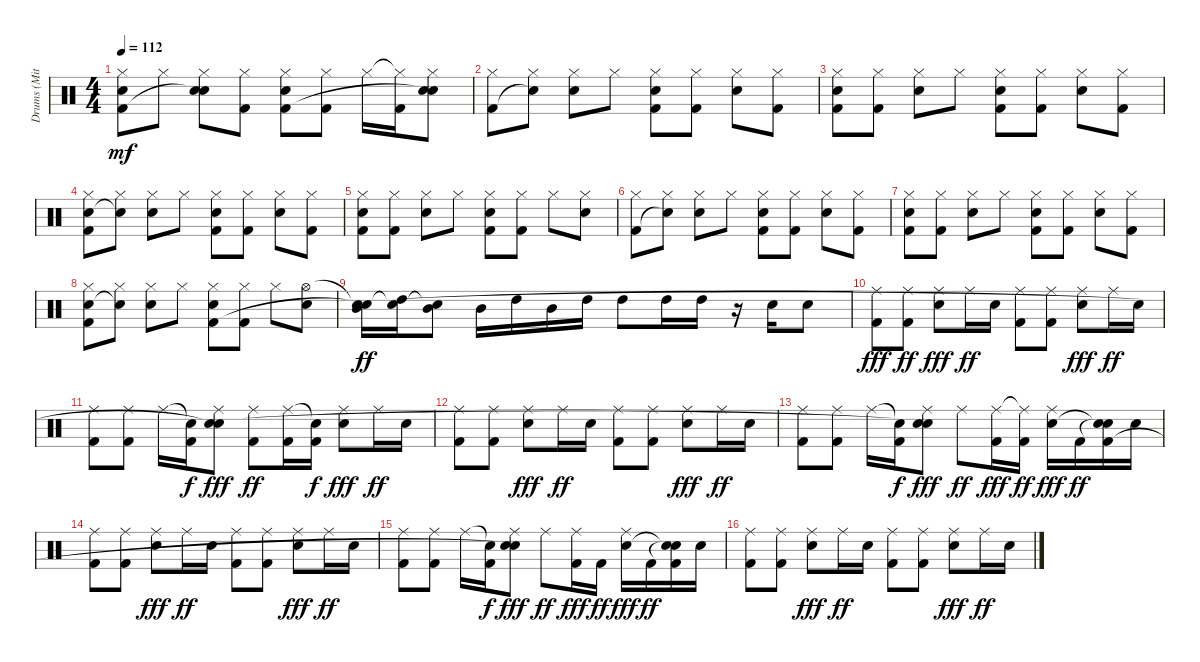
\track ("Drums (Mitch Mitchell)" "Drums (Mit") {instrument percussion}
\staff {score}
\articulation defaults
\ts (4 4)
\tempo 112
\clef neutral
\ks c
("Hi-Hat (closed)" "Electric Snare (hit)" "Kick (hit) 2").8{dy mf} "Hi-Hat (closed)".8 ("Hi-Hat (closed)" "Electric Snare (hit)" "Snare (hit)"{t}).8 ("Hi-Hat (closed)" "Kick (hit) 2").8 ("Hi-Hat (closed)" "Electric Snare (hit)" "Kick (hit) 2").8 ("Hi-Hat (closed)" "Kick (hit) 2").8 "Hi-Hat (closed)".16 ("Hi-Hat (closed)"{t} "Kick (hit) 2").16 ("Hi-Hat (closed)" "Electric Snare (hit)" "Snare (hit)"{t}).8 |
("Hi-Hat (closed)" "Kick (hit) 2").8 ("Hi-Hat (closed)" "Snare (hit)"{t}).8 ("Hi-Hat (closed)" "Electric Snare (hit)").8 "Hi-Hat (closed)".8 ("Hi-Hat (closed)" "Electric Snare (hit)" "Kick (hit) 2").8 ("Hi-Hat (closed)" "Kick (hit) 2").8 ("Hi-Hat (closed)" "Electric Snare (hit)").8 ("Hi-Hat (closed)" "Kick (hit) 2").8 |
("Hi-Hat (closed)" "Electric Snare (hit)" "Kick (hit) 2").8 ("Hi-Hat (closed)" "Kick (hit) 2").8 ("Hi-Hat (closed)" "Electric Snare (hit)").8 "Hi-Hat (closed)".8 ("Hi-Hat (closed)" "Electric Snare (hit)" "Kick (hit) 2").8 ("Hi-Hat (closed)" "Kick (hit) 2").8 ("Hi-Hat (closed)" "Electric Snare (hit)").8 ("Hi-Hat (closed)" "Kick (hit) 2").8 |
("Hi-Hat (closed)" "Electric Snare (hit)" "Kick (hit) 2").8 ("Hi-Hat (closed)" "Snare (hit)"{t}).8 ("Hi-Hat (closed)" "Electric Snare (hit)").8 "Hi-Hat (closed)".8 ("Hi-Hat (closed)" "Electric Snare (hit)" "Kick (hit) 2").8 ("Hi-Hat (closed)" "Kick (hit) 2").8 ("Hi-Hat (closed)" "Electric Snare (hit)").8 ("Hi-Hat (closed)" "Kick (hit) 2").8 |
("Hi-Hat (closed)" "Electric Snare (hit)" "Kick (hit) 2").8 ("Hi-Hat (closed)" "Kick (hit) 2").8 ("Hi-Hat (closed)" "Electric Snare (hit)").8 "Hi-Hat (closed)".8 ("Hi-Hat (closed)" "Electric Snare (hit)" "Kick (hit) 2").8 ("Hi-Hat (closed)" "Kick (hit) 2").8 "Hi-Hat (closed)".8 ("Hi-Hat (closed)" "Electric Snare (hit)").8 |
("Hi-Hat (closed)" "Kick (hit) 2").8 ("Hi-Hat (closed)" "Snare (hit)"{t}).8 ("Hi-Hat (closed)" "Electric Snare (hit)").8 "Hi-Hat (closed)".8 ("Hi-Hat (closed)" "Electric Snare (hit)" "Kick (hit) 2").8 ("Hi-Hat (closed)" "Kick (hit) 2").8 ("Hi-Hat (closed)" "Electric Snare (hit)").8 ("Hi-Hat (closed)" "Kick (hit) 2").8 |
("Hi-Hat (closed)" "Electric Snare (hit)" "Kick (hit) 2").8 ("Hi-Hat (closed)" "Kick (hit) 2").8 ("Hi-Hat (closed)" "Electric Snare (hit)").8 "Hi-Hat (closed)".8 ("Hi-Hat (closed)" "Electric Snare (hit)" "Kick (hit) 2").8 ("Hi-Hat (closed)" "Kick (hit) 2").8 ("Hi-Hat (closed)" "Electric Snare (hit)").8 ("Hi-Hat (closed)" "Kick (hit) 2").8 |
("Hi-Hat (closed)" "Electric Snare (hit)" "Kick (hit) 2").8 ("Hi-Hat (closed)" "Snare (hit)"{t}).8 ("Hi-Hat (closed)" "Electric Snare (hit)").8 "Hi-Hat (closed)".8 ("Hi-Hat (closed)" "Electric Snare (hit)" "Kick (hit) 2").8 ("Hi-Hat (closed)" "Kick (hit) 2").8 "Hi-Hat (closed)".8 ("Hi-Hat (open)" "Electric Snare (hit)").8 |
("Snare (hit)"{t} "Mid Tom (hit)" "Snare (hit)"{t}).16{dy ff} ("Snare (hit)"{t} "High Tom (hit)").16 ("Snare (hit)"{t} "Mid Tom (hit)").8 "Mid Tom (hit)".16 "High Tom (hit)".16 "Mid Tom (hit)".16 "High Tom (hit)".16 "High Tom (hit)".8 "High Tom (hit)".16 "High Tom (hit)".16 r.16 "Electric Snare (hit)".16 "Electric Snare (hit)".8 |
("Ride (middle)" "Kick (hit) 2").8{dy fff} ("Ride (middle)" "Kick (hit) 2").8{dy ff} ("Ride (middle)" "Electric Snare (hit)").8{dy fff} "Ride (middle)".16{dy ff} "Electric Snare (hit)".16 ("Ride (middle)" "Kick (hit) 2").8 ("Ride (middle)" "Kick (hit) 2").8 ("Ride (middle)" "Electric Snare (hit)").8{dy fff} "Ride (middle)".16{dy ff} "Electric Snare (hit)".16 |
("Ride (middle)" "Kick (hit) 2").8 ("Ride (middle)" "Kick (hit) 2").8 "Ride (middle)".16 ("Snare (hit)"{t} "Kick (hit) 2").16{dy f} ("Ride (middle)" "Electric Snare (hit)" "Snare (hit)"{t}).8{dy fff} ("Ride (middle)" "Kick (hit) 2").8{dy ff} ("Ride (middle)" "Kick (hit) 2").16 ("Snare (hit)"{t} "Kick (hit) 2").16{dy f} ("Ride (middle)" "Electric Snare (hit)").8{dy fff} "Ride (middle)".16{dy ff} "Electric Snare (hit)".16 |
("Ride (middle)" "Kick (hit) 2").8 ("Ride (middle)" "Kick (hit) 2").8 ("Ride (middle)" "Electric Snare (hit)").8{dy fff} "Ride (middle)".16{dy ff} "Electric Snare (hit)".16 ("Ride (middle)" "Kick (hit) 2").8 ("Ride (middle)" "Kick (hit) 2").8 ("Ride (middle)" "Electric Snare (hit)").8{dy fff} "Ride (middle)".16{dy ff} "Electric Snare (hit)".16 |
("Ride (middle)" "Kick (hit) 2").8 ("Ride (middle)" "Kick (hit) 2").8 "Ride (middle)".16 ("Snare (hit)"{t} "Kick (hit) 2").16{dy f} ("Ride (middle)" "Electric Snare (hit)" "Snare (hit)"{t}).8{dy fff} "Ride (middle)".8{dy ff} ("Ride (middle)" "Kick (hit) 2").16{dy fff} ("Ride (middle)"{t} "Kick (hit) 2").16{dy ff} ("Ride (middle)" "Electric Snare (hit)").16{dy fff} "Kick (hit) 2".16{dy ff} ("Snare (hit)"{t} "Snare (hit)"{t} "Kick (hit) 2").16 "Electric Snare (hit)".16 |
("Ride (middle)" "Kick (hit) 2").8 ("Ride (middle)" "Kick (hit) 2").8 ("Ride (middle)" "Electric Snare (hit)").8{dy fff} "Ride (middle)".16{dy ff} "Electric Snare (hit)".16 ("Ride (middle)" "Kick (hit) 2").8 ("Ride (middle)" "Kick (hit) 2").8 ("Ride (middle)" "Electric Snare (hit)").8{dy fff} "Ride (middle)".16{dy ff} "Electric Snare (hit)".16 |
("Ride (middle)" "Kick (hit) 2").8 ("Ride (middle)" "Kick (hit) 2").8 "Ride (middle)".16 ("Snare (hit)"{t} "Kick (hit) 2").16{dy f} ("Ride (middle)" "Electric Snare (hit)" "Snare (hit)"{t}).8{dy fff} "Ride (middle)".8{dy ff} ("Ride (middle)" "Kick (hit) 2").16{dy fff} "Kick (hit) 2".16{dy ff} ("Ride (middle)" "Electric Snare (hit)").16{dy fff} "Kick (hit) 2".16{dy ff} ("Snare (hit)"{t} "Snare (hit)"{t} "Kick (hit) 2").16 "Electric Snare (hit)".16 |
("Ride (middle)" "Kick (hit) 2").8 ("Ride (middle)" "Kick (hit) 2").8 ("Ride (middle)" "Electric Snare (hit)").8{dy fff} "Ride (middle)".16{dy ff} "Electric Snare (hit)".16 ("Ride (middle)" "Kick (hit) 2").8 ("Ride (middle)" "Kick (hit) 2").8 ("Ride (middle)" "Electric Snare (hit)").8{dy fff} "Ride (middle)".16{dy ff} "Electric Snare (hit)".16
